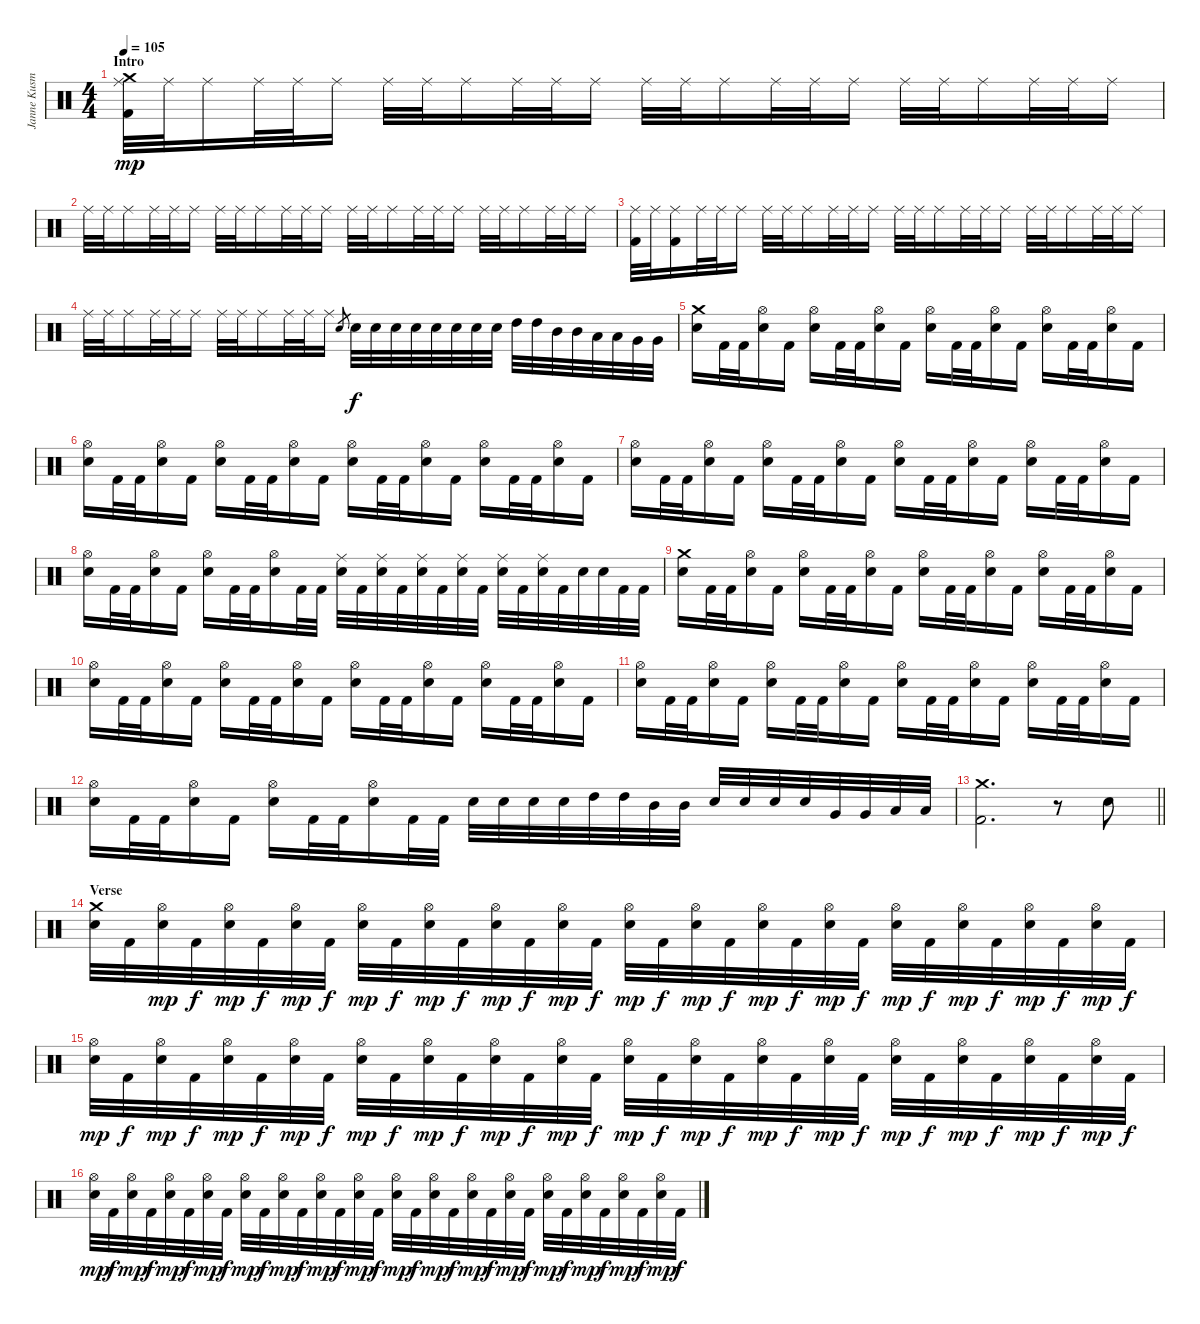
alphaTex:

\track ("Janne Kusmin " "Janne Kusm") {instrument percussion}
\staff {score}
\articulation defaults
\ts (4 4)
\section ("" "Intro")
\tempo 105
\clef neutral
\ks c
("Crash medium (hit)" "Ride (middle)" "Kick (hit) 2").32{dy mp} "Ride (middle)".32 "Ride (middle)".16 "Ride (middle)".32 "Ride (middle)".32 "Ride (middle)".16 "Ride (middle)".32 "Ride (middle)".32 "Ride (middle)".16 "Ride (middle)".32 "Ride (middle)".32 "Ride (middle)".16 "Ride (middle)".32 "Ride (middle)".32 "Ride (middle)".16 "Ride (middle)".32 "Ride (middle)".32 "Ride (middle)".16 "Ride (middle)".32 "Ride (middle)".32 "Ride (middle)".16 "Ride (middle)".32 "Ride (middle)".32 "Ride (middle)".16 |
"Ride (middle)".32 "Ride (middle)".32 "Ride (middle)".16 "Ride (middle)".32 "Ride (middle)".32 "Ride (middle)".16 "Ride (middle)".32 "Ride (middle)".32 "Ride (middle)".16 "Ride (middle)".32 "Ride (middle)".32 "Ride (middle)".16 "Ride (middle)".32 "Ride (middle)".32 "Ride (middle)".16 "Ride (middle)".32 "Ride (middle)".32 "Ride (middle)".16 "Ride (middle)".32 "Ride (middle)".32 "Ride (middle)".16 "Ride (middle)".32 "Ride (middle)".32 "Ride (middle)".16 |
("Ride (middle)" "Kick (hit) 2").32 "Ride (middle)".32 ("Ride (middle)" "Kick (hit) 2").16 "Ride (middle)".32 "Ride (middle)".32 "Ride (middle)".16 "Ride (middle)".32 "Ride (middle)".32 "Ride (middle)".16 "Ride (middle)".32 "Ride (middle)".32 "Ride (middle)".16 "Ride (middle)".32 "Ride (middle)".32 "Ride (middle)".16 "Ride (middle)".32 "Ride (middle)".32 "Ride (middle)".16 "Ride (middle)".32 "Ride (middle)".32 "Ride (middle)".16 "Ride (middle)".32 "Ride (middle)".32 "Ride (middle)".16 |
"Ride (middle)".32 "Ride (middle)".32 "Ride (middle)".16 "Ride (middle)".32 "Ride (middle)".32 "Ride (middle)".16 "Ride (middle)".32 "Ride (middle)".32 "Ride (middle)".16 "Ride (middle)".32 "Ride (middle)".32 "Ride (middle)".16 "Electric Snare (hit)".8{gr} "Electric Snare (hit)".32{dy f} "Electric Snare (hit)".32 "Electric Snare (hit)".32 "Electric Snare (hit)".32 "Electric Snare (hit)".32 "Electric Snare (hit)".32 "Electric Snare (hit)".32 "Electric Snare (hit)".32 "High Tom (hit)".32 "High Tom (hit)".32 "Mid Tom (hit)".32 "Mid Tom (hit)".32 "Low Tom (hit)".32 "Low Tom (hit)".32 "Very Low Tom (hit)".32 "Very Low Tom (hit)".32 |
("Crash medium (hit)" "Electric Snare (hit)").16 "Kick (hit) 2".32 "Kick (hit) 2".32 ("Hi-Hat (open)" "Electric Snare (hit)").16 "Kick (hit) 2".16 ("Hi-Hat (open)" "Electric Snare (hit)").16 "Kick (hit) 2".32 "Kick (hit) 2".32 ("Hi-Hat (open)" "Electric Snare (hit)").16 "Kick (hit) 2".16 ("Hi-Hat (open)" "Electric Snare (hit)").16 "Kick (hit) 2".32 "Kick (hit) 2".32 ("Hi-Hat (open)" "Electric Snare (hit)").16 "Kick (hit) 2".16 ("Hi-Hat (open)" "Electric Snare (hit)").16 "Kick (hit) 2".32 "Kick (hit) 2".32 ("Hi-Hat (open)" "Electric Snare (hit)").16 "Kick (hit) 2".16 |
("Hi-Hat (open)" "Electric Snare (hit)").16 "Kick (hit) 2".32 "Kick (hit) 2".32 ("Hi-Hat (open)" "Electric Snare (hit)").16 "Kick (hit) 2".16 ("Hi-Hat (open)" "Electric Snare (hit)").16 "Kick (hit) 2".32 "Kick (hit) 2".32 ("Hi-Hat (open)" "Electric Snare (hit)").16 "Kick (hit) 2".16 ("Hi-Hat (open)" "Electric Snare (hit)").16 "Kick (hit) 2".32 "Kick (hit) 2".32 ("Hi-Hat (open)" "Electric Snare (hit)").16 "Kick (hit) 2".16 ("Hi-Hat (open)" "Electric Snare (hit)").16 "Kick (hit) 2".32 "Kick (hit) 2".32 ("Hi-Hat (open)" "Electric Snare (hit)").16 "Kick (hit) 2".16 |
("Hi-Hat (open)" "Electric Snare (hit)").16 "Kick (hit) 2".32 "Kick (hit) 2".32 ("Hi-Hat (open)" "Electric Snare (hit)").16 "Kick (hit) 2".16 ("Hi-Hat (open)" "Electric Snare (hit)").16 "Kick (hit) 2".32 "Kick (hit) 2".32 ("Hi-Hat (open)" "Electric Snare (hit)").16 "Kick (hit) 2".16 ("Hi-Hat (open)" "Electric Snare (hit)").16 "Kick (hit) 2".32 "Kick (hit) 2".32 ("Hi-Hat (open)" "Electric Snare (hit)").16 "Kick (hit) 2".16 ("Hi-Hat (open)" "Electric Snare (hit)").16 "Kick (hit) 2".32 "Kick (hit) 2".32 ("Hi-Hat (open)" "Electric Snare (hit)").16 "Kick (hit) 2".16 |
("Hi-Hat (open)" "Electric Snare (hit)").16 "Kick (hit) 2".32 "Kick (hit) 2".32 ("Hi-Hat (open)" "Electric Snare (hit)").16 "Kick (hit) 2".16 ("Hi-Hat (open)" "Electric Snare (hit)").16 "Kick (hit) 2".32 "Kick (hit) 2".32 ("Hi-Hat (open)" "Electric Snare (hit)").16 "Kick (hit) 2".32 "Kick (hit) 2".32 ("Ride (middle)" "Electric Snare (hit)").32 "Kick (hit) 2".32 ("Ride (middle)" "Electric Snare (hit)").32 "Kick (hit) 2".32 ("Ride (middle)" "Electric Snare (hit)").32 "Kick (hit) 2".32 ("Ride (middle)" "Electric Snare (hit)").32 "Kick (hit) 2".32 ("Ride (middle)" "Electric Snare (hit)").32 "Kick (hit) 2".32 ("Ride (middle)" "Electric Snare (hit)").32 "Kick (hit) 2".32 "Electric Snare (hit)".32 "Electric Snare (hit)".32 "Kick (hit) 2".32 "Kick (hit) 2".32 |
("Crash medium (hit)" "Electric Snare (hit)").16 "Kick (hit) 2".32 "Kick (hit) 2".32 ("Hi-Hat (open)" "Electric Snare (hit)").16 "Kick (hit) 2".16 ("Hi-Hat (open)" "Electric Snare (hit)").16 "Kick (hit) 2".32 "Kick (hit) 2".32 ("Hi-Hat (open)" "Electric Snare (hit)").16 "Kick (hit) 2".16 ("Hi-Hat (open)" "Electric Snare (hit)").16 "Kick (hit) 2".32 "Kick (hit) 2".32 ("Hi-Hat (open)" "Electric Snare (hit)").16 "Kick (hit) 2".16 ("Hi-Hat (open)" "Electric Snare (hit)").16 "Kick (hit) 2".32 "Kick (hit) 2".32 ("Hi-Hat (open)" "Electric Snare (hit)").16 "Kick (hit) 2".16 |
("Hi-Hat (open)" "Electric Snare (hit)").16 "Kick (hit) 2".32 "Kick (hit) 2".32 ("Hi-Hat (open)" "Electric Snare (hit)").16 "Kick (hit) 2".16 ("Hi-Hat (open)" "Electric Snare (hit)").16 "Kick (hit) 2".32 "Kick (hit) 2".32 ("Hi-Hat (open)" "Electric Snare (hit)").16 "Kick (hit) 2".16 ("Hi-Hat (open)" "Electric Snare (hit)").16 "Kick (hit) 2".32 "Kick (hit) 2".32 ("Hi-Hat (open)" "Electric Snare (hit)").16 "Kick (hit) 2".16 ("Hi-Hat (open)" "Electric Snare (hit)").16 "Kick (hit) 2".32 "Kick (hit) 2".32 ("Hi-Hat (open)" "Electric Snare (hit)").16 "Kick (hit) 2".16 |
("Hi-Hat (open)" "Electric Snare (hit)").16 "Kick (hit) 2".32 "Kick (hit) 2".32 ("Hi-Hat (open)" "Electric Snare (hit)").16 "Kick (hit) 2".16 ("Hi-Hat (open)" "Electric Snare (hit)").16 "Kick (hit) 2".32 "Kick (hit) 2".32 ("Hi-Hat (open)" "Electric Snare (hit)").16 "Kick (hit) 2".16 ("Hi-Hat (open)" "Electric Snare (hit)").16 "Kick (hit) 2".32 "Kick (hit) 2".32 ("Hi-Hat (open)" "Electric Snare (hit)").16 "Kick (hit) 2".16 ("Hi-Hat (open)" "Electric Snare (hit)").16 "Kick (hit) 2".32 "Kick (hit) 2".32 ("Hi-Hat (open)" "Electric Snare (hit)").16 "Kick (hit) 2".16 |
("Hi-Hat (open)" "Electric Snare (hit)").16 "Kick (hit) 2".32 "Kick (hit) 2".32 ("Hi-Hat (open)" "Electric Snare (hit)").16 "Kick (hit) 2".16 ("Hi-Hat (open)" "Electric Snare (hit)").16 "Kick (hit) 2".32 "Kick (hit) 2".32 ("Hi-Hat (open)" "Electric Snare (hit)").16 "Kick (hit) 2".32 "Kick (hit) 2".32 "Electric Snare (hit)".32 "Electric Snare (hit)".32 "Electric Snare (hit)".32 "Electric Snare (hit)".32 "High Tom (hit)".32 "High Tom (hit)".32 "Mid Tom (hit)".32 "Mid Tom (hit)".32 "Electric Snare (hit)".32 "Electric Snare (hit)".32 "Electric Snare (hit)".32 "Electric Snare (hit)".32 "Very Low Tom (hit)".32 "Very Low Tom (hit)".32 "Low Floor Tom (hit)".32 "Low Floor Tom (hit)".32 |
\barLineRight lightlight
("Crash medium (hit)" "Kick (hit) 2").2{d} r.8 "Electric Snare (hit)".8 |
\section ("" "Verse")
("Crash medium (hit)" "Electric Snare (hit)").32 "Kick (hit) 2".32 ("Hi-Hat (open)" "Electric Snare (hit)").32{dy mp} "Kick (hit) 2".32{dy f} ("Hi-Hat (open)" "Electric Snare (hit)").32{dy mp} "Kick (hit) 2".32{dy f} ("Hi-Hat (open)" "Electric Snare (hit)").32{dy mp} "Kick (hit) 2".32{dy f} ("Hi-Hat (open)" "Electric Snare (hit)").32{dy mp} "Kick (hit) 2".32{dy f} ("Hi-Hat (open)" "Electric Snare (hit)").32{dy mp} "Kick (hit) 2".32{dy f} ("Hi-Hat (open)" "Electric Snare (hit)").32{dy mp} "Kick (hit) 2".32{dy f} ("Hi-Hat (open)" "Electric Snare (hit)").32{dy mp} "Kick (hit) 2".32{dy f} ("Hi-Hat (open)" "Electric Snare (hit)").32{dy mp} "Kick (hit) 2".32{dy f} ("Hi-Hat (open)" "Electric Snare (hit)").32{dy mp} "Kick (hit) 2".32{dy f} ("Hi-Hat (open)" "Electric Snare (hit)").32{dy mp} "Kick (hit) 2".32{dy f} ("Hi-Hat (open)" "Electric Snare (hit)").32{dy mp} "Kick (hit) 2".32{dy f} ("Hi-Hat (open)" "Electric Snare (hit)").32{dy mp} "Kick (hit) 2".32{dy f} ("Hi-Hat (open)" "Electric Snare (hit)").32{dy mp} "Kick (hit) 2".32{dy f} ("Hi-Hat (open)" "Electric Snare (hit)").32{dy mp} "Kick (hit) 2".32{dy f} ("Hi-Hat (open)" "Electric Snare (hit)").32{dy mp} "Kick (hit) 2".32{dy f} |
("Hi-Hat (open)" "Electric Snare (hit)").32{dy mp} "Kick (hit) 2".32{dy f} ("Hi-Hat (open)" "Electric Snare (hit)").32{dy mp} "Kick (hit) 2".32{dy f} ("Hi-Hat (open)" "Electric Snare (hit)").32{dy mp} "Kick (hit) 2".32{dy f} ("Hi-Hat (open)" "Electric Snare (hit)").32{dy mp} "Kick (hit) 2".32{dy f} ("Hi-Hat (open)" "Electric Snare (hit)").32{dy mp} "Kick (hit) 2".32{dy f} ("Hi-Hat (open)" "Electric Snare (hit)").32{dy mp} "Kick (hit) 2".32{dy f} ("Hi-Hat (open)" "Electric Snare (hit)").32{dy mp} "Kick (hit) 2".32{dy f} ("Hi-Hat (open)" "Electric Snare (hit)").32{dy mp} "Kick (hit) 2".32{dy f} ("Hi-Hat (open)" "Electric Snare (hit)").32{dy mp} "Kick (hit) 2".32{dy f} ("Hi-Hat (open)" "Electric Snare (hit)").32{dy mp} "Kick (hit) 2".32{dy f} ("Hi-Hat (open)" "Electric Snare (hit)").32{dy mp} "Kick (hit) 2".32{dy f} ("Hi-Hat (open)" "Electric Snare (hit)").32{dy mp} "Kick (hit) 2".32{dy f} ("Hi-Hat (open)" "Electric Snare (hit)").32{dy mp} "Kick (hit) 2".32{dy f} ("Hi-Hat (open)" "Electric Snare (hit)").32{dy mp} "Kick (hit) 2".32{dy f} ("Hi-Hat (open)" "Electric Snare (hit)").32{dy mp} "Kick (hit) 2".32{dy f} ("Hi-Hat (open)" "Electric Snare (hit)").32{dy mp} "Kick (hit) 2".32{dy f} |
("Hi-Hat (open)" "Electric Snare (hit)").32{dy mp} "Kick (hit) 2".32{dy f} ("Hi-Hat (open)" "Electric Snare (hit)").32{dy mp} "Kick (hit) 2".32{dy f} ("Hi-Hat (open)" "Electric Snare (hit)").32{dy mp} "Kick (hit) 2".32{dy f} ("Hi-Hat (open)" "Electric Snare (hit)").32{dy mp} "Kick (hit) 2".32{dy f} ("Hi-Hat (open)" "Electric Snare (hit)").32{dy mp} "Kick (hit) 2".32{dy f} ("Hi-Hat (open)" "Electric Snare (hit)").32{dy mp} "Kick (hit) 2".32{dy f} ("Hi-Hat (open)" "Electric Snare (hit)").32{dy mp} "Kick (hit) 2".32{dy f} ("Hi-Hat (open)" "Electric Snare (hit)").32{dy mp} "Kick (hit) 2".32{dy f} ("Hi-Hat (open)" "Electric Snare (hit)").32{dy mp} "Kick (hit) 2".32{dy f} ("Hi-Hat (open)" "Electric Snare (hit)").32{dy mp} "Kick (hit) 2".32{dy f} ("Hi-Hat (open)" "Electric Snare (hit)").32{dy mp} "Kick (hit) 2".32{dy f} ("Hi-Hat (open)" "Electric Snare (hit)").32{dy mp} "Kick (hit) 2".32{dy f} ("Hi-Hat (open)" "Electric Snare (hit)").32{dy mp} "Kick (hit) 2".32{dy f} ("Hi-Hat (open)" "Electric Snare (hit)").32{dy mp} "Kick (hit) 2".32{dy f} ("Hi-Hat (open)" "Electric Snare (hit)").32{dy mp} "Kick (hit) 2".32{dy f} ("Hi-Hat (open)" "Electric Snare (hit)").32{dy mp} "Kick (hit) 2".32{dy f}
